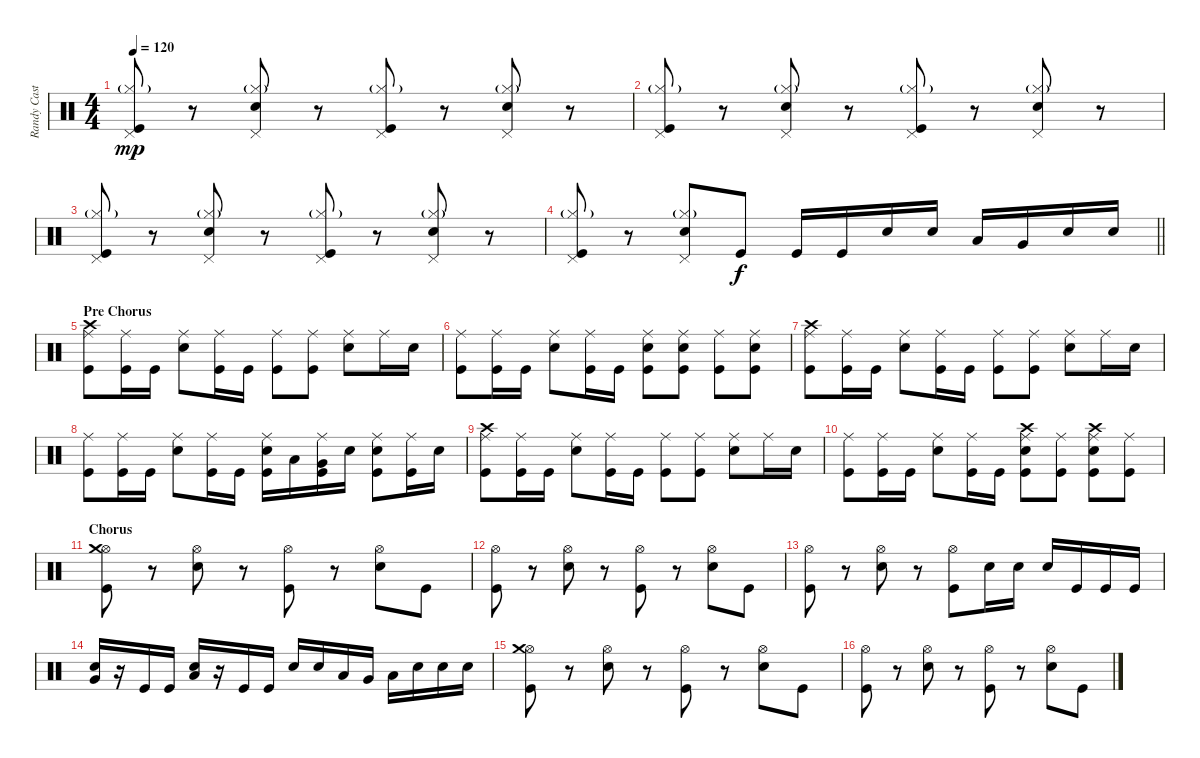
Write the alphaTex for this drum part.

\track ("Randy Castiello (Dums)" "Randy Cast") {instrument percussion}
\staff {score}
\articulation defaults
\ts (4 4)
\tempo 120
\clef neutral
\ks c
("Pedal Hi-Hat (hit)" "Hi-Hat (closed)"{g} "Kick (hit)").8{dy mp} r.8 ("Pedal Hi-Hat (hit)" "Hi-Hat (closed)"{g} "Snare (hit) 2").8 r.8 ("Pedal Hi-Hat (hit)" "Hi-Hat (closed)"{g} "Kick (hit)").8 r.8 ("Pedal Hi-Hat (hit)" "Hi-Hat (closed)"{g} "Snare (hit) 2").8 r.8 |
("Pedal Hi-Hat (hit)" "Hi-Hat (closed)"{g} "Kick (hit)").8 r.8 ("Pedal Hi-Hat (hit)" "Hi-Hat (closed)"{g} "Snare (hit) 2").8 r.8 ("Pedal Hi-Hat (hit)" "Hi-Hat (closed)"{g} "Kick (hit)").8 r.8 ("Pedal Hi-Hat (hit)" "Hi-Hat (closed)"{g} "Snare (hit) 2").8 r.8 |
("Pedal Hi-Hat (hit)" "Hi-Hat (closed)"{g} "Kick (hit)").8 r.8 ("Pedal Hi-Hat (hit)" "Hi-Hat (closed)"{g} "Snare (hit) 2").8 r.8 ("Pedal Hi-Hat (hit)" "Hi-Hat (closed)"{g} "Kick (hit)").8 r.8 ("Pedal Hi-Hat (hit)" "Hi-Hat (closed)"{g} "Snare (hit) 2").8 r.8 |
\barLineRight lightlight
("Pedal Hi-Hat (hit)" "Hi-Hat (closed)"{g} "Kick (hit)").8 r.8 ("Pedal Hi-Hat (hit)" "Hi-Hat (closed)"{g} "Snare (hit) 2").8 "Kick (hit)".8{dy f} "Kick (hit)".16 "Kick (hit)".16 "Snare (hit) 2".16 "Snare (hit) 2".16 "Low Tom (hit)".16 "Very Low Tom (hit)".16 "Snare (hit) 2".16 "Snare (hit) 2".16 |
\section ("" "Pre Chorus")
("Ride (middle)" "Crash high (hit)" "Kick (hit)").8 ("Ride (middle)" "Kick (hit)").16 "Kick (hit)".16 ("Ride (middle)" "Snare (hit) 2").8 ("Ride (middle)" "Kick (hit)").16 "Kick (hit)".16 ("Ride (middle)" "Kick (hit)").8 ("Ride (middle)" "Kick (hit)").8 ("Ride (middle)" "Snare (hit) 2").8 "Ride (middle)".16 "Snare (hit) 2".16 |
("Ride (middle)" "Kick (hit)").8 ("Ride (middle)" "Kick (hit)").16 "Kick (hit)".16 ("Ride (middle)" "Snare (hit) 2").8 ("Ride (middle)" "Kick (hit)").16 "Kick (hit)".16 ("Ride (middle)" "Snare (hit) 2" "Kick (hit)").8 ("Ride (middle)" "Snare (hit) 2" "Kick (hit)").8 ("Ride (middle)" "Kick (hit)").8 ("Ride (middle)" "Snare (hit) 2" "Kick (hit)").8 |
("Ride (middle)" "Crash high (hit)" "Kick (hit)").8 ("Ride (middle)" "Kick (hit)").16 "Kick (hit)".16 ("Ride (middle)" "Snare (hit) 2").8 ("Ride (middle)" "Kick (hit)").16 "Kick (hit)".16 ("Ride (middle)" "Kick (hit)").8 ("Ride (middle)" "Kick (hit)").8 ("Ride (middle)" "Snare (hit) 2").8 "Ride (middle)".16 "Snare (hit) 2".16 |
("Ride (middle)" "Kick (hit)").8 ("Ride (middle)" "Kick (hit)").16 "Kick (hit)".16 ("Ride (middle)" "Snare (hit) 2").8 ("Ride (middle)" "Kick (hit)").16 "Kick (hit)".16 ("Ride (middle)" "Snare (hit) 2" "Kick (hit)").16 "Low Tom (hit)".16 ("Ride (middle)" "Very Low Tom (hit)" "Kick (hit)").16 "Snare (hit) 2".16 ("Ride (middle)" "Snare (hit) 2" "Kick (hit)").8 ("Ride (middle)" "Kick (hit)").16 "Snare (hit) 2".16 |
("Ride (middle)" "Crash high (hit)" "Kick (hit)").8 ("Ride (middle)" "Kick (hit)").16 "Kick (hit)".16 ("Ride (middle)" "Snare (hit) 2").8 ("Ride (middle)" "Kick (hit)").16 "Kick (hit)".16 ("Ride (middle)" "Kick (hit)").8 ("Ride (middle)" "Kick (hit)").8 ("Ride (middle)" "Snare (hit) 2").8 "Ride (middle)".16 "Snare (hit) 2".16 |
("Ride (middle)" "Kick (hit)").8 ("Ride (middle)" "Kick (hit)").16 "Kick (hit)".16 ("Ride (middle)" "Snare (hit) 2").8 ("Ride (middle)" "Kick (hit)").16 "Kick (hit)".16 ("Ride (middle)" "Crash high (hit)" "Snare (hit) 2" "Kick (hit)").8 ("Ride (middle)" "Kick (hit)").8 ("Ride (middle)" "Crash high (hit)" "Snare (hit) 2" "Kick (hit)").8 ("Ride (middle)" "Kick (hit)").8 |
\section ("" "Chorus")
("Hi-Hat (open)" "Crash medium (hit)" "Kick (hit)").8 r.8 ("Hi-Hat (open)" "Snare (hit) 2").8 r.8 ("Hi-Hat (open)" "Kick (hit)").8 r.8 ("Hi-Hat (open)" "Snare (hit) 2").8 "Kick (hit)".8 |
("Hi-Hat (open)" "Kick (hit)").8 r.8 ("Hi-Hat (open)" "Snare (hit) 2").8 r.8 ("Hi-Hat (open)" "Kick (hit)").8 r.8 ("Hi-Hat (open)" "Snare (hit) 2").8 "Kick (hit)".8 |
("Hi-Hat (open)" "Kick (hit)").8 r.8 ("Hi-Hat (open)" "Snare (hit) 2").8 r.8 ("Hi-Hat (open)" "Kick (hit)").8 "Snare (hit) 2".16 "Snare (hit) 2".16 "Snare (hit) 2".16 "Kick (hit)".16 "Kick (hit)".16 "Kick (hit)".16 |
("Very Low Tom (hit)" "Snare (hit) 2").16 r.16 "Kick (hit)".16 "Kick (hit)".16 ("Low Floor Tom (hit)" "Snare (hit) 2").16 r.16 "Kick (hit)".16 "Kick (hit)".16 "Snare (hit) 2".16 "Snare (hit) 2".16 "Low Tom (hit)".16 "Very Low Tom (hit)".16 "Low Floor Tom (hit)".16 "Snare (hit) 2".16 "Snare (hit) 2".16 "Snare (hit) 2".16 |
("Hi-Hat (open)" "Crash medium (hit)" "Kick (hit)").8 r.8 ("Hi-Hat (open)" "Snare (hit) 2").8 r.8 ("Hi-Hat (open)" "Kick (hit)").8 r.8 ("Hi-Hat (open)" "Snare (hit) 2").8 "Kick (hit)".8 |
("Hi-Hat (open)" "Kick (hit)").8 r.8 ("Hi-Hat (open)" "Snare (hit) 2").8 r.8 ("Hi-Hat (open)" "Kick (hit)").8 r.8 ("Hi-Hat (open)" "Snare (hit) 2").8 "Kick (hit)".8
